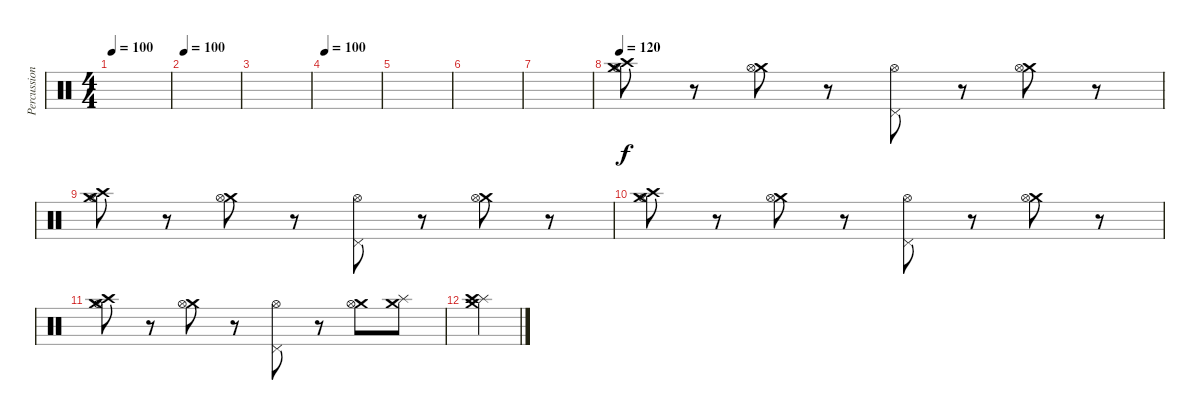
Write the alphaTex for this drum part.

\track ("Percussion" "Percussion") {instrument percussion}
\staff
\articulation defaults
\ts (4 4)
\tempo 100
\clef neutral
\ks c
|
\tempo 100
|
|
\tempo 100
|
|
|
|
\tempo 120
("Crash medium (hit)" "Crash high (hit)" "Hi-Hat (open)").8 r.8 ("Crash medium (hit)" "Hi-Hat (open)").8 r.8 ("Pedal Hi-Hat (hit)" "Hi-Hat (open)").8 r.8 ("Crash medium (hit)" "Hi-Hat (open)").8 r.8 |
("Crash medium (hit)" "Crash high (hit)" "Hi-Hat (open)").8 r.8 ("Crash medium (hit)" "Hi-Hat (open)").8 r.8 ("Pedal Hi-Hat (hit)" "Hi-Hat (open)").8 r.8 ("Crash medium (hit)" "Hi-Hat (open)").8 r.8 |
("Crash medium (hit)" "Crash high (hit)" "Hi-Hat (open)").8 r.8 ("Crash medium (hit)" "Hi-Hat (open)").8 r.8 ("Pedal Hi-Hat (hit)" "Hi-Hat (open)").8 r.8 ("Crash medium (hit)" "Hi-Hat (open)").8 r.8 |
("Crash medium (hit)" "Crash high (hit)" "Hi-Hat (open)").8 r.8 ("Crash medium (hit)" "Hi-Hat (open)").8 r.8 ("Pedal Hi-Hat (hit)" "Hi-Hat (open)").8 r.8 ("Crash medium (hit)" "Hi-Hat (open)").8 ("Crash medium (hit)" "Splash (hit)").8 |
("Splash (hit)" "Crash medium (hit)" "Crash high (hit)").4
